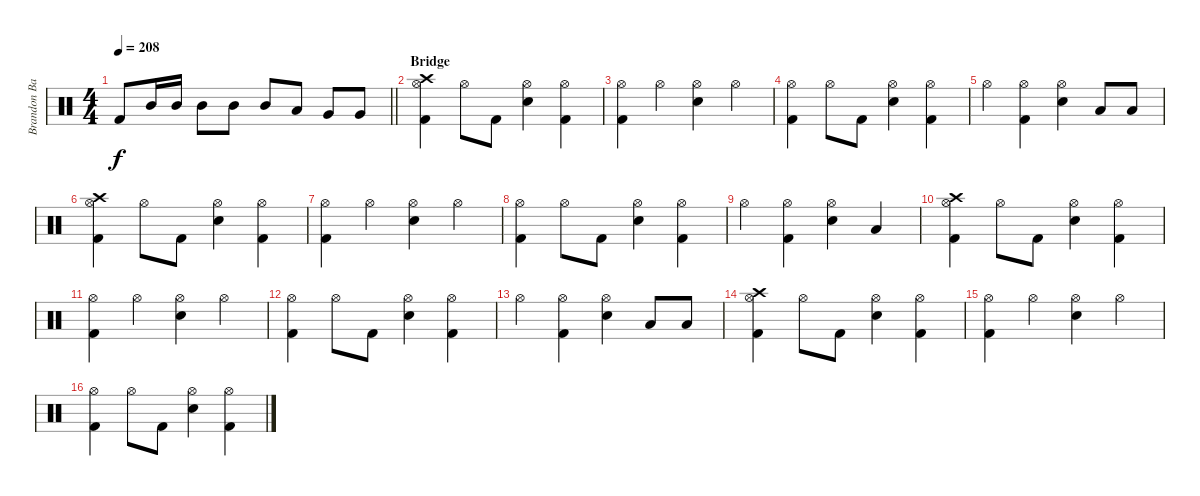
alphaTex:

\track ("Brandon Barnes - Drums" "Brandon Ba") {instrument percussion}
\staff {score}
\articulation defaults
\ts (4 4)
\tempo 208
\clef neutral
\barLineRight lightlight
\ks c "Kick (hit) 2".8{dy f} "Mid Tom (hit)".16 "Mid Tom (hit)".16 "Mid Tom (hit)".8 "Mid Tom (hit)".8 "Mid Tom (hit)".8 "Low Tom (hit)".8 "Very Low Tom (hit)".8 "Very Low Tom (hit)".8
|
\section ("" "Bridge")
("Crash high (hit)" "Hi-Hat (open)" "Kick (hit) 2").4 "Hi-Hat (open)".8 "Kick (hit) 2".8 ("Snare (hit) 2" "Hi-Hat (open)").4 ("Hi-Hat (open)" "Kick (hit) 2").4 |
("Kick (hit) 2" "Hi-Hat (open)").4 "Hi-Hat (open)".4 ("Snare (hit) 2" "Hi-Hat (open)").4 "Hi-Hat (open)".4 |
("Hi-Hat (open)" "Kick (hit) 2").4 "Hi-Hat (open)".8 "Kick (hit) 2".8 ("Snare (hit) 2" "Hi-Hat (open)").4 ("Hi-Hat (open)" "Kick (hit) 2").4 |
"Hi-Hat (open)".4 ("Kick (hit) 2" "Hi-Hat (open)").4 ("Snare (hit) 2" "Hi-Hat (open)").4 "Low Tom (hit)".8 "Low Tom (hit)".8 |
("Crash high (hit)" "Hi-Hat (open)" "Kick (hit) 2").4 "Hi-Hat (open)".8 "Kick (hit) 2".8 ("Snare (hit) 2" "Hi-Hat (open)").4 ("Hi-Hat (open)" "Kick (hit) 2").4 |
("Kick (hit) 2" "Hi-Hat (open)").4 "Hi-Hat (open)".4 ("Snare (hit) 2" "Hi-Hat (open)").4 "Hi-Hat (open)".4 |
("Hi-Hat (open)" "Kick (hit) 2").4 "Hi-Hat (open)".8 "Kick (hit) 2".8 ("Snare (hit) 2" "Hi-Hat (open)").4 ("Hi-Hat (open)" "Kick (hit) 2").4 |
"Hi-Hat (open)".4 ("Kick (hit) 2" "Hi-Hat (open)").4 ("Snare (hit) 2" "Hi-Hat (open)").4 "Low Tom (hit)".4 |
("Crash high (hit)" "Hi-Hat (open)" "Kick (hit) 2").4 "Hi-Hat (open)".8 "Kick (hit) 2".8 ("Snare (hit) 2" "Hi-Hat (open)").4 ("Hi-Hat (open)" "Kick (hit) 2").4 |
("Kick (hit) 2" "Hi-Hat (open)").4 "Hi-Hat (open)".4 ("Snare (hit) 2" "Hi-Hat (open)").4 "Hi-Hat (open)".4 |
("Hi-Hat (open)" "Kick (hit) 2").4 "Hi-Hat (open)".8 "Kick (hit) 2".8 ("Snare (hit) 2" "Hi-Hat (open)").4 ("Hi-Hat (open)" "Kick (hit) 2").4 |
"Hi-Hat (open)".4 ("Kick (hit) 2" "Hi-Hat (open)").4 ("Snare (hit) 2" "Hi-Hat (open)").4 "Low Tom (hit)".8 "Low Tom (hit)".8 |
("Crash high (hit)" "Hi-Hat (open)" "Kick (hit) 2").4 "Hi-Hat (open)".8 "Kick (hit) 2".8 ("Snare (hit) 2" "Hi-Hat (open)").4 ("Hi-Hat (open)" "Kick (hit) 2").4 |
("Kick (hit) 2" "Hi-Hat (open)").4 "Hi-Hat (open)".4 ("Snare (hit) 2" "Hi-Hat (open)").4 "Hi-Hat (open)".4 |
("Hi-Hat (open)" "Kick (hit) 2").4 "Hi-Hat (open)".8 "Kick (hit) 2".8 ("Snare (hit) 2" "Hi-Hat (open)").4 ("Hi-Hat (open)" "Kick (hit) 2").4
